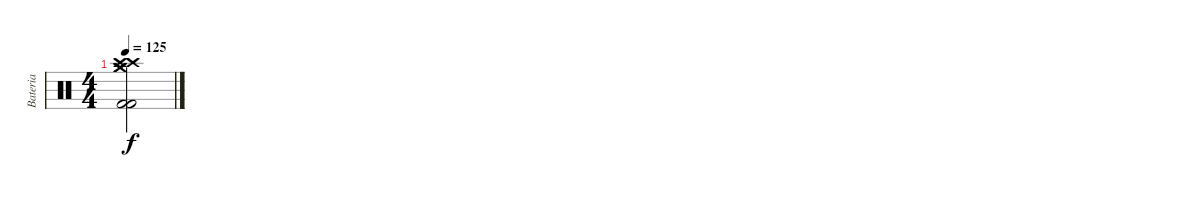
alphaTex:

\track ("Bateria" "Bateria") {instrument percussion}
\staff {score}
\articulation defaults
\ts (4 4)
\tempo 125
\clef neutral
\ks c
("Kick (hit) 2"{t} "Crash high (hit)"{t} "Crash medium (hit)"{t} "Kick (hit) 2"{t} "Crash medium (hit)"{t} "Crash high (hit)"{t}).2{dy f}
